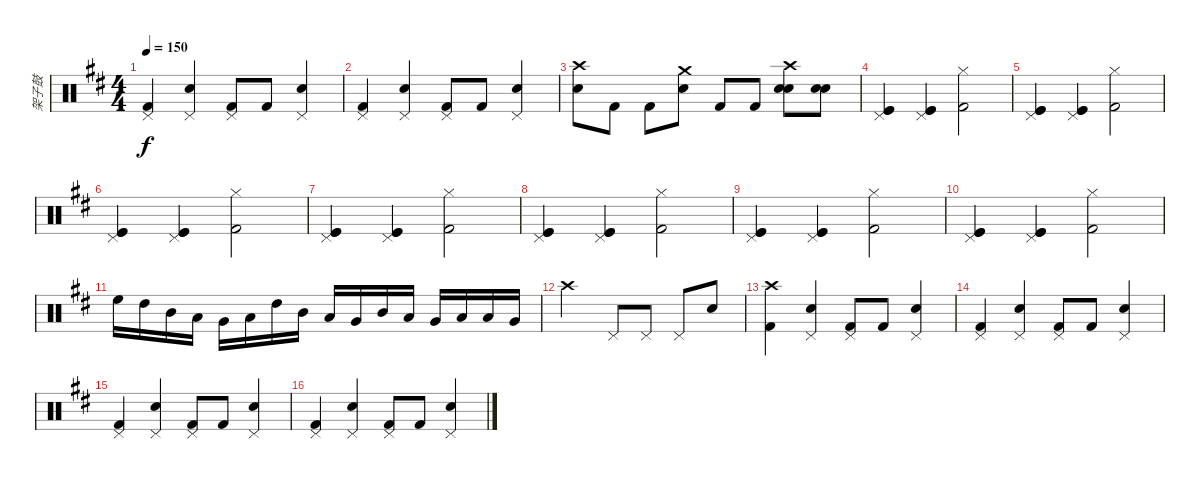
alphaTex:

\track ("架子鼓" "架子鼓") {instrument percussion}
\staff {score}
\articulation defaults
\ts (4 4)
\tempo 150
\clef neutral
\ks bminor
("Pedal Hi-Hat (hit)" "Kick (hit) 2").4{dy f} ("Pedal Hi-Hat (hit)" "Snare (hit) 2").4 ("Pedal Hi-Hat (hit)" "Kick (hit) 2").8 "Kick (hit) 2".8 ("Pedal Hi-Hat (hit)" "Snare (hit) 2").4 |
("Pedal Hi-Hat (hit)" "Kick (hit) 2").4 ("Pedal Hi-Hat (hit)" "Snare (hit) 2").4 ("Pedal Hi-Hat (hit)" "Kick (hit) 2").8 "Kick (hit) 2".8 ("Pedal Hi-Hat (hit)" "Snare (hit) 2").4 |
("Crash high (hit)" "Snare (hit) 2").8 "Kick (hit) 2".8 "Kick (hit) 2".8 ("Crash medium (hit)" "Snare (hit) 2").8 "Kick (hit) 2".8 "Kick (hit) 2".8 ("Crash high (hit)" "Snare (hit) 2" "Snare (hit) 2").8 ("Snare (hit) 2" "Snare (hit) 2").8 |
("Kick (hit)" "Kick (hit)" "Pedal Hi-Hat (hit)").4 ("Kick (hit)" "Kick (hit)" "Pedal Hi-Hat (hit)").4 ("Kick (hit) 2" "Hi-Hat (closed)").2 |
("Kick (hit)" "Kick (hit)" "Pedal Hi-Hat (hit)").4 ("Kick (hit)" "Kick (hit)" "Pedal Hi-Hat (hit)").4 ("Kick (hit) 2" "Hi-Hat (closed)").2 |
("Kick (hit)" "Kick (hit)" "Pedal Hi-Hat (hit)").4 ("Kick (hit)" "Kick (hit)" "Pedal Hi-Hat (hit)").4 ("Kick (hit) 2" "Hi-Hat (closed)").2 |
("Kick (hit)" "Kick (hit)" "Pedal Hi-Hat (hit)").4 ("Kick (hit)" "Kick (hit)" "Pedal Hi-Hat (hit)").4 ("Kick (hit) 2" "Hi-Hat (closed)").2 |
("Kick (hit)" "Kick (hit)" "Pedal Hi-Hat (hit)").4 ("Kick (hit)" "Kick (hit)" "Pedal Hi-Hat (hit)").4 ("Kick (hit) 2" "Hi-Hat (closed)").2 |
("Kick (hit)" "Kick (hit)" "Pedal Hi-Hat (hit)").4 ("Kick (hit)" "Kick (hit)" "Pedal Hi-Hat (hit)").4 ("Kick (hit) 2" "Hi-Hat (closed)").2 |
("Kick (hit)" "Kick (hit)" "Pedal Hi-Hat (hit)").4 ("Kick (hit)" "Kick (hit)" "Pedal Hi-Hat (hit)").4 ("Kick (hit) 2" "Hi-Hat (closed)").2 |
"High Floor Tom (hit)".16 "High Tom (hit)".16 "Mid Tom (hit)".16 "Low Tom (hit)".16 "Very Low Tom (hit)".16 "Low Floor Tom (hit)".16 "High Tom (hit)".16 "Mid Tom (hit)".16 "Low Tom (hit)".16 "Very Low Tom (hit)".16 "Mid Tom (hit)".16 "Low Tom (hit)".16 "Very Low Tom (hit)".16 "Low Floor Tom (hit)".16 "Low Tom (hit)".16 "Very Low Tom (hit)".16 |
"Crash high (hit)".2 "Pedal Hi-Hat (hit)".8 "Pedal Hi-Hat (hit)".8 "Pedal Hi-Hat (hit)".8 "Snare (hit) 2".8 |
("Crash high (hit)" "Kick (hit) 2").4 ("Pedal Hi-Hat (hit)" "Snare (hit) 2").4 ("Pedal Hi-Hat (hit)" "Kick (hit) 2").8 "Kick (hit) 2".8 ("Pedal Hi-Hat (hit)" "Snare (hit) 2").4 |
("Pedal Hi-Hat (hit)" "Kick (hit) 2").4 ("Pedal Hi-Hat (hit)" "Snare (hit) 2").4 ("Pedal Hi-Hat (hit)" "Kick (hit) 2").8 "Kick (hit) 2".8 ("Pedal Hi-Hat (hit)" "Snare (hit) 2").4 |
("Pedal Hi-Hat (hit)" "Kick (hit) 2").4 ("Pedal Hi-Hat (hit)" "Snare (hit) 2").4 ("Pedal Hi-Hat (hit)" "Kick (hit) 2").8 "Kick (hit) 2".8 ("Pedal Hi-Hat (hit)" "Snare (hit) 2").4 |
("Pedal Hi-Hat (hit)" "Kick (hit) 2").4 ("Pedal Hi-Hat (hit)" "Snare (hit) 2").4 ("Pedal Hi-Hat (hit)" "Kick (hit) 2").8 "Kick (hit) 2".8 ("Pedal Hi-Hat (hit)" "Snare (hit) 2").4
